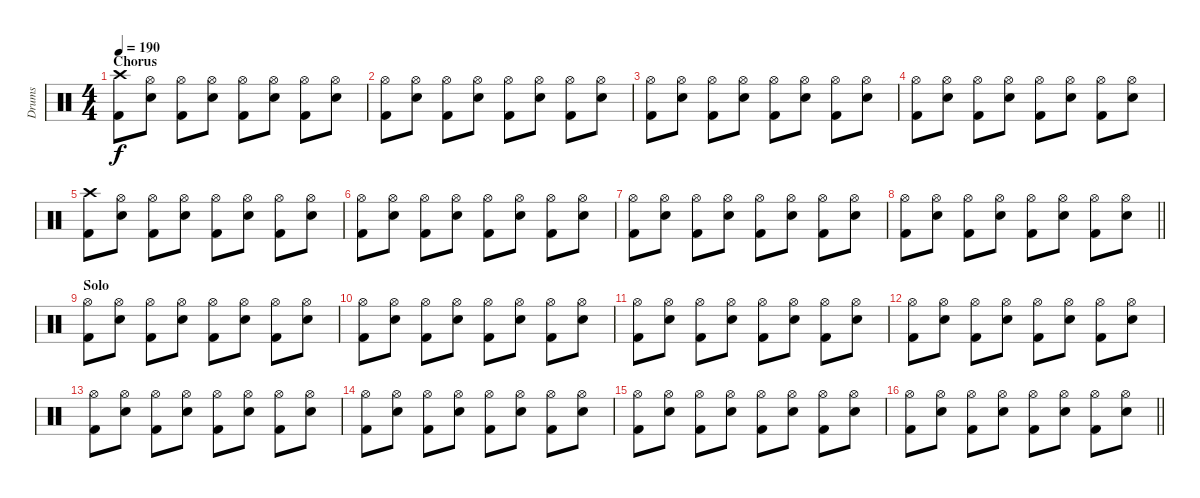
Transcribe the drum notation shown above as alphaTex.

\track ("Drums" "Drums") {instrument percussion}
\staff {score}
\articulation defaults
\ts (4 4)
\section ("" "Chorus")
\tempo 190
\clef neutral
\ks c
("Crash high (hit)" "Kick (hit) 2").8{dy f} ("Hi-Hat (open)" "Electric Snare (hit)").8 ("Hi-Hat (open)" "Kick (hit) 2").8 ("Hi-Hat (open)" "Electric Snare (hit)").8 ("Hi-Hat (open)" "Kick (hit) 2").8 ("Hi-Hat (open)" "Electric Snare (hit)").8 ("Hi-Hat (open)" "Kick (hit) 2").8 ("Hi-Hat (open)" "Electric Snare (hit)").8 |
("Hi-Hat (open)" "Kick (hit) 2").8 ("Hi-Hat (open)" "Electric Snare (hit)").8 ("Hi-Hat (open)" "Kick (hit) 2").8 ("Hi-Hat (open)" "Electric Snare (hit)").8 ("Hi-Hat (open)" "Kick (hit) 2").8 ("Hi-Hat (open)" "Electric Snare (hit)").8 ("Hi-Hat (open)" "Kick (hit) 2").8 ("Hi-Hat (open)" "Electric Snare (hit)").8 |
("Hi-Hat (open)" "Kick (hit) 2").8 ("Hi-Hat (open)" "Electric Snare (hit)").8 ("Hi-Hat (open)" "Kick (hit) 2").8 ("Hi-Hat (open)" "Electric Snare (hit)").8 ("Hi-Hat (open)" "Kick (hit) 2").8 ("Hi-Hat (open)" "Electric Snare (hit)").8 ("Hi-Hat (open)" "Kick (hit) 2").8 ("Hi-Hat (open)" "Electric Snare (hit)").8 |
("Hi-Hat (open)" "Kick (hit) 2").8 ("Hi-Hat (open)" "Electric Snare (hit)").8 ("Hi-Hat (open)" "Kick (hit) 2").8 ("Hi-Hat (open)" "Electric Snare (hit)").8 ("Hi-Hat (open)" "Kick (hit) 2").8 ("Hi-Hat (open)" "Electric Snare (hit)").8 ("Hi-Hat (open)" "Kick (hit) 2").8 ("Hi-Hat (open)" "Electric Snare (hit)").8 |
("Crash high (hit)" "Kick (hit) 2").8 ("Hi-Hat (open)" "Electric Snare (hit)").8 ("Hi-Hat (open)" "Kick (hit) 2").8 ("Hi-Hat (open)" "Electric Snare (hit)").8 ("Hi-Hat (open)" "Kick (hit) 2").8 ("Hi-Hat (open)" "Electric Snare (hit)").8 ("Hi-Hat (open)" "Kick (hit) 2").8 ("Hi-Hat (open)" "Electric Snare (hit)").8 |
("Hi-Hat (open)" "Kick (hit) 2").8 ("Hi-Hat (open)" "Electric Snare (hit)").8 ("Hi-Hat (open)" "Kick (hit) 2").8 ("Hi-Hat (open)" "Electric Snare (hit)").8 ("Hi-Hat (open)" "Kick (hit) 2").8 ("Hi-Hat (open)" "Electric Snare (hit)").8 ("Hi-Hat (open)" "Kick (hit) 2").8 ("Hi-Hat (open)" "Electric Snare (hit)").8 |
("Hi-Hat (open)" "Kick (hit) 2").8 ("Hi-Hat (open)" "Electric Snare (hit)").8 ("Hi-Hat (open)" "Kick (hit) 2").8 ("Hi-Hat (open)" "Electric Snare (hit)").8 ("Hi-Hat (open)" "Kick (hit) 2").8 ("Hi-Hat (open)" "Electric Snare (hit)").8 ("Hi-Hat (open)" "Kick (hit) 2").8 ("Hi-Hat (open)" "Electric Snare (hit)").8 |
\barLineRight lightlight
("Hi-Hat (open)" "Kick (hit) 2").8 ("Hi-Hat (open)" "Electric Snare (hit)").8 ("Hi-Hat (open)" "Kick (hit) 2").8 ("Hi-Hat (open)" "Electric Snare (hit)").8 ("Hi-Hat (open)" "Kick (hit) 2").8 ("Hi-Hat (open)" "Electric Snare (hit)").8 ("Hi-Hat (open)" "Kick (hit) 2").8 ("Hi-Hat (open)" "Electric Snare (hit)").8 |
\section ("" "Solo")
("Hi-Hat (open)" "Kick (hit) 2").8 ("Hi-Hat (open)" "Electric Snare (hit)").8 ("Hi-Hat (open)" "Kick (hit) 2").8 ("Hi-Hat (open)" "Electric Snare (hit)").8 ("Hi-Hat (open)" "Kick (hit) 2").8 ("Hi-Hat (open)" "Electric Snare (hit)").8 ("Hi-Hat (open)" "Kick (hit) 2").8 ("Hi-Hat (open)" "Electric Snare (hit)").8 |
("Hi-Hat (open)" "Kick (hit) 2").8 ("Hi-Hat (open)" "Electric Snare (hit)").8 ("Hi-Hat (open)" "Kick (hit) 2").8 ("Hi-Hat (open)" "Electric Snare (hit)").8 ("Hi-Hat (open)" "Kick (hit) 2").8 ("Hi-Hat (open)" "Electric Snare (hit)").8 ("Hi-Hat (open)" "Kick (hit) 2").8 ("Hi-Hat (open)" "Electric Snare (hit)").8 |
("Hi-Hat (open)" "Kick (hit) 2").8 ("Hi-Hat (open)" "Electric Snare (hit)").8 ("Hi-Hat (open)" "Kick (hit) 2").8 ("Hi-Hat (open)" "Electric Snare (hit)").8 ("Hi-Hat (open)" "Kick (hit) 2").8 ("Hi-Hat (open)" "Electric Snare (hit)").8 ("Hi-Hat (open)" "Kick (hit) 2").8 ("Hi-Hat (open)" "Electric Snare (hit)").8 |
("Hi-Hat (open)" "Kick (hit) 2").8 ("Hi-Hat (open)" "Electric Snare (hit)").8 ("Hi-Hat (open)" "Kick (hit) 2").8 ("Hi-Hat (open)" "Electric Snare (hit)").8 ("Hi-Hat (open)" "Kick (hit) 2").8 ("Hi-Hat (open)" "Electric Snare (hit)").8 ("Hi-Hat (open)" "Kick (hit) 2").8 ("Hi-Hat (open)" "Electric Snare (hit)").8 |
("Hi-Hat (open)" "Kick (hit) 2").8 ("Hi-Hat (open)" "Electric Snare (hit)").8 ("Hi-Hat (open)" "Kick (hit) 2").8 ("Hi-Hat (open)" "Electric Snare (hit)").8 ("Hi-Hat (open)" "Kick (hit) 2").8 ("Hi-Hat (open)" "Electric Snare (hit)").8 ("Hi-Hat (open)" "Kick (hit) 2").8 ("Hi-Hat (open)" "Electric Snare (hit)").8 |
("Hi-Hat (open)" "Kick (hit) 2").8 ("Hi-Hat (open)" "Electric Snare (hit)").8 ("Hi-Hat (open)" "Kick (hit) 2").8 ("Hi-Hat (open)" "Electric Snare (hit)").8 ("Hi-Hat (open)" "Kick (hit) 2").8 ("Hi-Hat (open)" "Electric Snare (hit)").8 ("Hi-Hat (open)" "Kick (hit) 2").8 ("Hi-Hat (open)" "Electric Snare (hit)").8 |
("Hi-Hat (open)" "Kick (hit) 2").8 ("Hi-Hat (open)" "Electric Snare (hit)").8 ("Hi-Hat (open)" "Kick (hit) 2").8 ("Hi-Hat (open)" "Electric Snare (hit)").8 ("Hi-Hat (open)" "Kick (hit) 2").8 ("Hi-Hat (open)" "Electric Snare (hit)").8 ("Hi-Hat (open)" "Kick (hit) 2").8 ("Hi-Hat (open)" "Electric Snare (hit)").8 |
\barLineRight lightlight
("Hi-Hat (open)" "Kick (hit) 2").8 ("Hi-Hat (open)" "Electric Snare (hit)").8 ("Hi-Hat (open)" "Kick (hit) 2").8 ("Hi-Hat (open)" "Electric Snare (hit)").8 ("Hi-Hat (open)" "Kick (hit) 2").8 ("Hi-Hat (open)" "Electric Snare (hit)").8 ("Hi-Hat (open)" "Kick (hit) 2").8 ("Hi-Hat (open)" "Electric Snare (hit)").8
